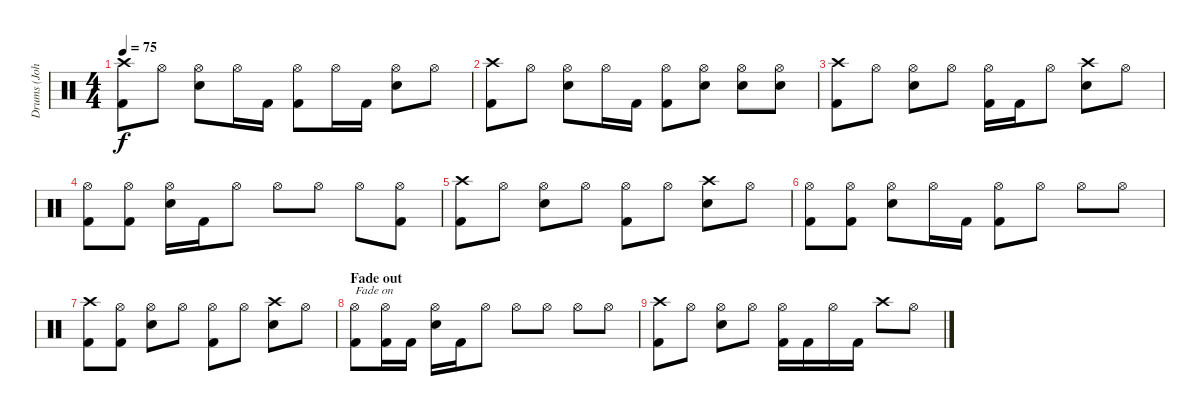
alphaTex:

\track ("Drums (John Bonham" "Drums (Joh") {instrument percussion}
\staff {score}
\articulation defaults
\ts (4 4)
\tempo 75
\clef neutral
\ks c
("Crash high (hit)" "Kick (hit) 2").8{dy f} "Hi-Hat (open)".8 ("Hi-Hat (open)" "Snare (hit) 2").8 "Hi-Hat (open)".16 "Kick (hit) 2".16 ("Hi-Hat (open)" "Kick (hit) 2").8 "Hi-Hat (open)".16 "Kick (hit) 2".16 ("Hi-Hat (open)" "Snare (hit) 2").8 "Hi-Hat (open)".8 |
("Crash high (hit)" "Kick (hit) 2").8 "Hi-Hat (open)".8 ("Hi-Hat (open)" "Snare (hit) 2").8 "Hi-Hat (open)".16 "Kick (hit) 2".16 ("Hi-Hat (open)" "Kick (hit) 2").8 ("Hi-Hat (open)" "Snare (hit) 2").8 ("Hi-Hat (open)" "Snare (hit) 2").8 ("Hi-Hat (open)" "Snare (hit) 2").8 |
("Crash high (hit)" "Kick (hit) 2").8 "Hi-Hat (open)".8 ("Hi-Hat (open)" "Snare (hit) 2").8 "Hi-Hat (open)".8 ("Hi-Hat (open)" "Kick (hit) 2").16 "Kick (hit) 2".16 "Hi-Hat (open)".8 ("Crash high (hit)" "Snare (hit) 2").8 "Hi-Hat (open)".8 |
("Hi-Hat (open)" "Kick (hit) 2").8 ("Hi-Hat (open)" "Kick (hit) 2").8 ("Hi-Hat (open)" "Snare (hit) 2").16 "Kick (hit) 2".16 "Hi-Hat (open)".8 "Hi-Hat (open)".8 "Hi-Hat (open)".8 "Hi-Hat (open)".8 ("Hi-Hat (open)" "Kick (hit) 2").8 |
("Crash high (hit)" "Kick (hit) 2").8 "Hi-Hat (open)".8 ("Hi-Hat (open)" "Snare (hit) 2").8 "Hi-Hat (open)".8 ("Hi-Hat (open)" "Kick (hit) 2").8 "Hi-Hat (open)".8 ("Crash high (hit)" "Snare (hit) 2").8 "Hi-Hat (open)".8 |
("Hi-Hat (open)" "Kick (hit) 2").8 ("Hi-Hat (open)" "Kick (hit) 2").8 ("Hi-Hat (open)" "Snare (hit) 2").8 "Hi-Hat (open)".16 "Kick (hit) 2".16 ("Hi-Hat (open)" "Kick (hit) 2").8 "Hi-Hat (open)".8 "Hi-Hat (open)".8 "Hi-Hat (open)".8 |
("Crash high (hit)" "Kick (hit) 2").8 ("Hi-Hat (open)" "Kick (hit) 2").8 ("Hi-Hat (open)" "Snare (hit) 2").8 "Hi-Hat (open)".8 ("Hi-Hat (open)" "Kick (hit) 2").8 "Hi-Hat (open)".8 ("Crash high (hit)" "Snare (hit) 2").8 "Hi-Hat (open)".8 |
\section ("" "Fade out")
("Hi-Hat (open)" "Kick (hit) 2").8{txt "Fade on" volume 0} ("Hi-Hat (open)" "Kick (hit) 2").16 "Kick (hit) 2".16 ("Hi-Hat (open)" "Snare (hit) 2").16 "Kick (hit) 2".16 "Hi-Hat (open)".8 "Hi-Hat (open)".8 "Hi-Hat (open)".8 "Hi-Hat (open)".8 "Hi-Hat (open)".8 |
("Crash high (hit)" "Kick (hit) 2").8 "Hi-Hat (open)".8 ("Hi-Hat (open)" "Snare (hit) 2").8 "Hi-Hat (open)".8 ("Hi-Hat (open)" "Kick (hit) 2").16 "Kick (hit) 2".16 "Hi-Hat (open)".16 "Kick (hit) 2".16 "Crash high (hit)".8 "Hi-Hat (open)".8
